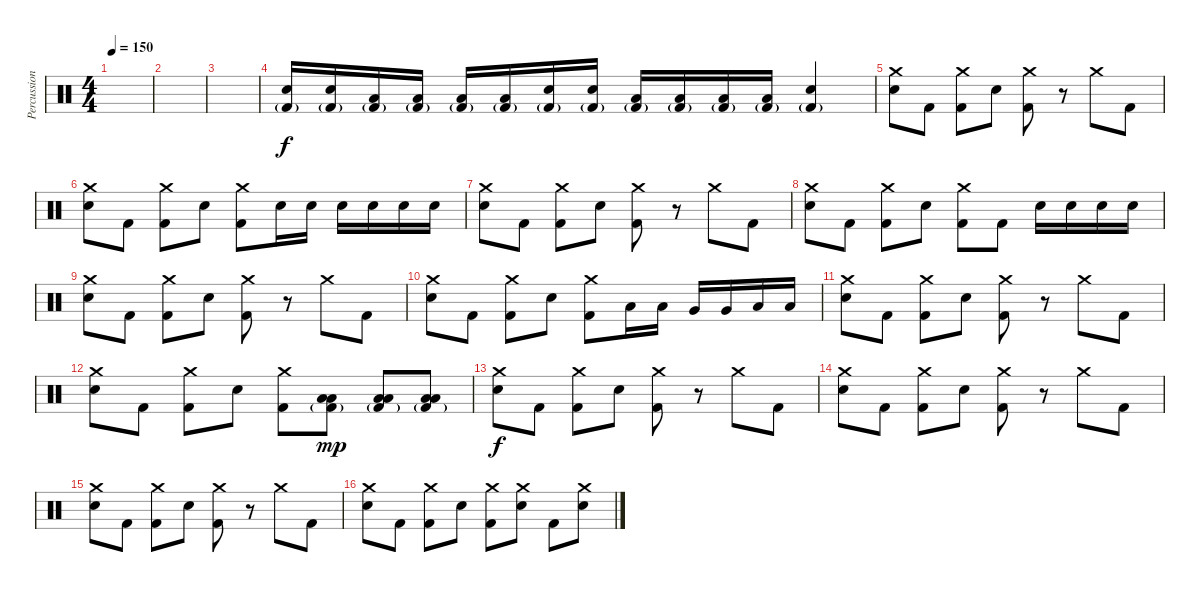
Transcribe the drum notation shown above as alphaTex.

\track ("Percussion" "Percussion") {instrument percussion}
\staff {score}
\articulation defaults
\ts (4 4)
\tempo 150
\clef neutral
\ks c
|
|
|
("Electric Snare (hit)" "Kick (hit) 2"{g}).16 ("Electric Snare (hit)" "Kick (hit) 2"{g}).16 ("Low Tom (hit)" "Kick (hit) 2"{g}).16 ("Low Tom (hit)" "Kick (hit) 2"{g}).16 ("Low Tom (hit)" "Kick (hit) 2"{g}).16 ("Low Tom (hit)" "Kick (hit) 2"{g}).16 ("Electric Snare (hit)" "Kick (hit) 2"{g}).16 ("Electric Snare (hit)" "Kick (hit) 2"{g}).16 ("Low Tom (hit)" "Kick (hit) 2"{g}).16 ("Low Tom (hit)" "Kick (hit) 2"{g}).16 ("Low Tom (hit)" "Kick (hit) 2"{g}).16 ("Low Tom (hit)" "Kick (hit) 2"{g}).16 ("Electric Snare (hit)" "Kick (hit) 2"{g}).4 |
("Electric Snare (hit)" "Crash medium (hit)").8{dy f} "Kick (hit) 2".8 ("Kick (hit) 2" "Crash medium (hit)").8 "Electric Snare (hit)".8 ("Kick (hit) 2" "Crash medium (hit)").8 r.8 "Crash medium (hit)".8 "Kick (hit) 2".8 |
("Electric Snare (hit)" "Crash medium (hit)").8 "Kick (hit) 2".8 ("Kick (hit) 2" "Crash medium (hit)").8 "Electric Snare (hit)".8 ("Kick (hit) 2" "Crash medium (hit)").8 "Electric Snare (hit)".16 "Electric Snare (hit)".16 "Electric Snare (hit)".16 "Electric Snare (hit)".16 "Electric Snare (hit)".16 "Electric Snare (hit)".16 |
("Electric Snare (hit)" "Crash medium (hit)").8 "Kick (hit) 2".8 ("Kick (hit) 2" "Crash medium (hit)").8 "Electric Snare (hit)".8 ("Kick (hit) 2" "Crash medium (hit)").8 r.8 "Crash medium (hit)".8 "Kick (hit) 2".8 |
("Electric Snare (hit)" "Crash medium (hit)").8 "Kick (hit) 2".8 ("Kick (hit) 2" "Crash medium (hit)").8 "Electric Snare (hit)".8 ("Kick (hit) 2" "Crash medium (hit)").8 "Kick (hit) 2".8 "Electric Snare (hit)".16 "Electric Snare (hit)".16 "Electric Snare (hit)".16 "Electric Snare (hit)".16 |
("Electric Snare (hit)" "Crash medium (hit)").8 "Kick (hit) 2".8 ("Kick (hit) 2" "Crash medium (hit)").8 "Electric Snare (hit)".8 ("Kick (hit) 2" "Crash medium (hit)").8 r.8 "Crash medium (hit)".8 "Kick (hit) 2".8 |
("Electric Snare (hit)" "Crash medium (hit)").8 "Kick (hit) 2".8 ("Kick (hit) 2" "Crash medium (hit)").8 "Electric Snare (hit)".8 ("Kick (hit) 2" "Crash medium (hit)").8 "Low Tom (hit)".16 "Low Tom (hit)".16 "Very Low Tom (hit)".16 "Very Low Tom (hit)".16 "Low Floor Tom (hit)".16 "Low Floor Tom (hit)".16 |
("Electric Snare (hit)" "Crash medium (hit)").8 "Kick (hit) 2".8 ("Kick (hit) 2" "Crash medium (hit)").8 "Electric Snare (hit)".8 ("Kick (hit) 2" "Crash medium (hit)").8 r.8 "Crash medium (hit)".8 "Kick (hit) 2".8 |
("Electric Snare (hit)" "Crash medium (hit)").8 "Kick (hit) 2".8 ("Kick (hit) 2" "Crash medium (hit)").8 "Electric Snare (hit)".8 ("Kick (hit) 2" "Crash medium (hit)").8 ("Low Tom (hit)" "Low Floor Tom (hit)" "Kick (hit) 2"{g}).8{dy mp} ("Low Tom (hit)" "Low Floor Tom (hit)" "Kick (hit) 2"{g}).8 ("Low Tom (hit)" "Low Floor Tom (hit)" "Kick (hit) 2"{g}).8 |
("Electric Snare (hit)" "Crash medium (hit)").8{dy f} "Kick (hit) 2".8 ("Kick (hit) 2" "Crash medium (hit)").8 "Electric Snare (hit)".8 ("Kick (hit) 2" "Crash medium (hit)").8 r.8 "Crash medium (hit)".8 "Kick (hit) 2".8 |
("Electric Snare (hit)" "Crash medium (hit)").8 "Kick (hit) 2".8 ("Kick (hit) 2" "Crash medium (hit)").8 "Electric Snare (hit)".8 ("Kick (hit) 2" "Crash medium (hit)").8 r.8 "Crash medium (hit)".8 "Kick (hit) 2".8 |
("Electric Snare (hit)" "Crash medium (hit)").8 "Kick (hit) 2".8 ("Kick (hit) 2" "Crash medium (hit)").8 "Electric Snare (hit)".8 ("Kick (hit) 2" "Crash medium (hit)").8 r.8 "Crash medium (hit)".8 "Kick (hit) 2".8 |
("Electric Snare (hit)" "Crash medium (hit)").8 "Kick (hit) 2".8 ("Kick (hit) 2" "Crash medium (hit)").8 "Electric Snare (hit)".8 ("Kick (hit) 2" "Crash medium (hit)").8 ("Electric Snare (hit)" "Crash medium (hit)").8 "Kick (hit) 2".8 ("Electric Snare (hit)" "Crash medium (hit)").8
